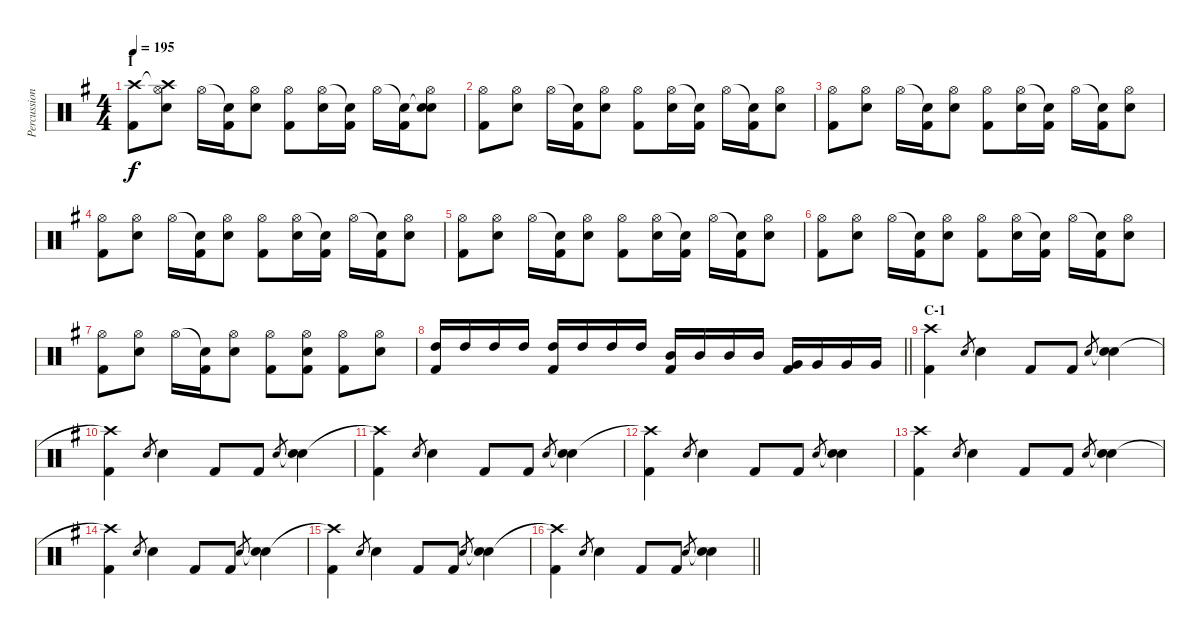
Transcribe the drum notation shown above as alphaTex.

\track ("Percussion" "Percussion") {instrument percussion}
\staff {score}
\articulation defaults
\ts (4 4)
\section ("" "I")
\tempo 195
\clef neutral
\ks g
("Crash high (hit)" "Kick (hit) 2").8{dy f} ("Crash high (hit)"{t} "Hi-Hat (open)" "Electric Snare (hit)").8 "Hi-Hat (open)".16 ("Snare (hit)"{t} "Kick (hit) 2").16 ("Hi-Hat (open)" "Electric Snare (hit)").8 ("Hi-Hat (open)" "Kick (hit) 2").8 ("Hi-Hat (open)" "Electric Snare (hit)").16 ("Snare (hit)"{t} "Kick (hit) 2").16 "Hi-Hat (open)".16 ("Snare (hit)"{t} "Kick (hit) 2").16 ("Snare (hit)"{t} "Hi-Hat (open)" "Electric Snare (hit)").8 |
("Hi-Hat (open)" "Kick (hit) 2").8 ("Hi-Hat (open)" "Electric Snare (hit)").8 "Hi-Hat (open)".16 ("Snare (hit)"{t} "Kick (hit) 2").16 ("Hi-Hat (open)" "Electric Snare (hit)").8 ("Hi-Hat (open)" "Kick (hit) 2").8 ("Hi-Hat (open)" "Electric Snare (hit)").16 ("Snare (hit)"{t} "Kick (hit) 2").16 "Hi-Hat (open)".16 ("Snare (hit)"{t} "Kick (hit) 2").16 ("Hi-Hat (open)" "Electric Snare (hit)").8 |
("Hi-Hat (open)" "Kick (hit) 2").8 ("Hi-Hat (open)" "Electric Snare (hit)").8 "Hi-Hat (open)".16 ("Snare (hit)"{t} "Kick (hit) 2").16 ("Hi-Hat (open)" "Electric Snare (hit)").8 ("Hi-Hat (open)" "Kick (hit) 2").8 ("Hi-Hat (open)" "Electric Snare (hit)").16 ("Snare (hit)"{t} "Kick (hit) 2").16 "Hi-Hat (open)".16 ("Snare (hit)"{t} "Kick (hit) 2").16 ("Hi-Hat (open)" "Electric Snare (hit)").8 |
("Hi-Hat (open)" "Kick (hit) 2").8 ("Hi-Hat (open)" "Electric Snare (hit)").8 "Hi-Hat (open)".16 ("Snare (hit)"{t} "Kick (hit) 2").16 ("Hi-Hat (open)" "Electric Snare (hit)").8 ("Hi-Hat (open)" "Kick (hit) 2").8 ("Hi-Hat (open)" "Electric Snare (hit)").16 ("Snare (hit)"{t} "Kick (hit) 2").16 "Hi-Hat (open)".16 ("Snare (hit)"{t} "Kick (hit) 2").16 ("Hi-Hat (open)" "Electric Snare (hit)").8 |
("Hi-Hat (open)" "Kick (hit) 2").8 ("Hi-Hat (open)" "Electric Snare (hit)").8 "Hi-Hat (open)".16 ("Snare (hit)"{t} "Kick (hit) 2").16 ("Hi-Hat (open)" "Electric Snare (hit)").8 ("Hi-Hat (open)" "Kick (hit) 2").8 ("Hi-Hat (open)" "Electric Snare (hit)").16 ("Snare (hit)"{t} "Kick (hit) 2").16 "Hi-Hat (open)".16 ("Snare (hit)"{t} "Kick (hit) 2").16 ("Hi-Hat (open)" "Electric Snare (hit)").8 |
("Hi-Hat (open)" "Kick (hit) 2").8 ("Hi-Hat (open)" "Electric Snare (hit)").8 "Hi-Hat (open)".16 ("Snare (hit)"{t} "Kick (hit) 2").16 ("Hi-Hat (open)" "Electric Snare (hit)").8 ("Hi-Hat (open)" "Kick (hit) 2").8 ("Hi-Hat (open)" "Electric Snare (hit)").16 ("Snare (hit)"{t} "Kick (hit) 2").16 "Hi-Hat (open)".16 ("Snare (hit)"{t} "Kick (hit) 2").16 ("Hi-Hat (open)" "Electric Snare (hit)").8 |
("Hi-Hat (open)" "Kick (hit) 2").8 ("Hi-Hat (open)" "Electric Snare (hit)").8 "Hi-Hat (open)".16 ("Snare (hit)"{t} "Kick (hit) 2").16 ("Hi-Hat (open)" "Electric Snare (hit)").8 ("Hi-Hat (open)" "Kick (hit) 2").8 ("Hi-Hat (open)" "Electric Snare (hit)" "Kick (hit) 2").8 ("Hi-Hat (open)" "Kick (hit) 2").8 ("Hi-Hat (open)" "Electric Snare (hit)").8 |
\barLineRight lightlight
("High Tom (hit)" "Kick (hit) 2").16 "High Tom (hit)".16 "High Tom (hit)".16 "High Tom (hit)".16 ("High Tom (hit)" "Kick (hit) 2").16 "High Tom (hit)".16 "High Tom (hit)".16 "High Tom (hit)".16 ("Mid Tom (hit)" "Kick (hit) 2").16 "Mid Tom (hit)".16 "Mid Tom (hit)".16 "Mid Tom (hit)".16 ("Very Low Tom (hit)" "Kick (hit) 2").16 "Very Low Tom (hit)".16 "Very Low Tom (hit)".16 "Very Low Tom (hit)".16 |
\section ("" "C-1")
("Crash high (hit)" "Kick (hit) 2").4 "Electric Snare (hit)".8{gr} "Electric Snare (hit)".4 "Kick (hit) 2".8 "Kick (hit) 2".8 "Electric Snare (hit)".8{gr} ("Snare (hit)"{t} "Electric Snare (hit)").4 |
("Crash high (hit)"{t} "Kick (hit) 2").4 "Electric Snare (hit)".8{gr} "Electric Snare (hit)".4 "Kick (hit) 2".8 "Kick (hit) 2".8 "Electric Snare (hit)".8{gr} ("Snare (hit)"{t} "Electric Snare (hit)").4 |
("Crash high (hit)"{t} "Kick (hit) 2").4 "Electric Snare (hit)".8{gr} "Electric Snare (hit)".4 "Kick (hit) 2".8 "Kick (hit) 2".8 "Electric Snare (hit)".8{gr} ("Snare (hit)"{t} "Electric Snare (hit)").4 |
("Crash high (hit)"{t} "Kick (hit) 2").4 "Electric Snare (hit)".8{gr} "Electric Snare (hit)".4 "Kick (hit) 2".8 "Kick (hit) 2".8 "Electric Snare (hit)".8{gr} ("Snare (hit)"{t} "Electric Snare (hit)").4 |
("Crash high (hit)" "Kick (hit) 2").4 "Electric Snare (hit)".8{gr} "Electric Snare (hit)".4 "Kick (hit) 2".8 "Kick (hit) 2".8 "Electric Snare (hit)".8{gr} ("Snare (hit)"{t} "Electric Snare (hit)").4 |
("Crash high (hit)"{t} "Kick (hit) 2").4 "Electric Snare (hit)".8{gr} "Electric Snare (hit)".4 "Kick (hit) 2".8 "Kick (hit) 2".8 "Electric Snare (hit)".8{gr} ("Snare (hit)"{t} "Electric Snare (hit)").4 |
("Crash high (hit)"{t} "Kick (hit) 2").4 "Electric Snare (hit)".8{gr} "Electric Snare (hit)".4 "Kick (hit) 2".8 "Kick (hit) 2".8 "Electric Snare (hit)".8{gr} ("Snare (hit)"{t} "Electric Snare (hit)").4 |
\barLineRight lightlight
("Crash high (hit)"{t} "Kick (hit) 2").4 "Electric Snare (hit)".8{gr} "Electric Snare (hit)".4 "Kick (hit) 2".8 "Kick (hit) 2".8 "Electric Snare (hit)".8{gr} ("Snare (hit)"{t} "Electric Snare (hit)").4
